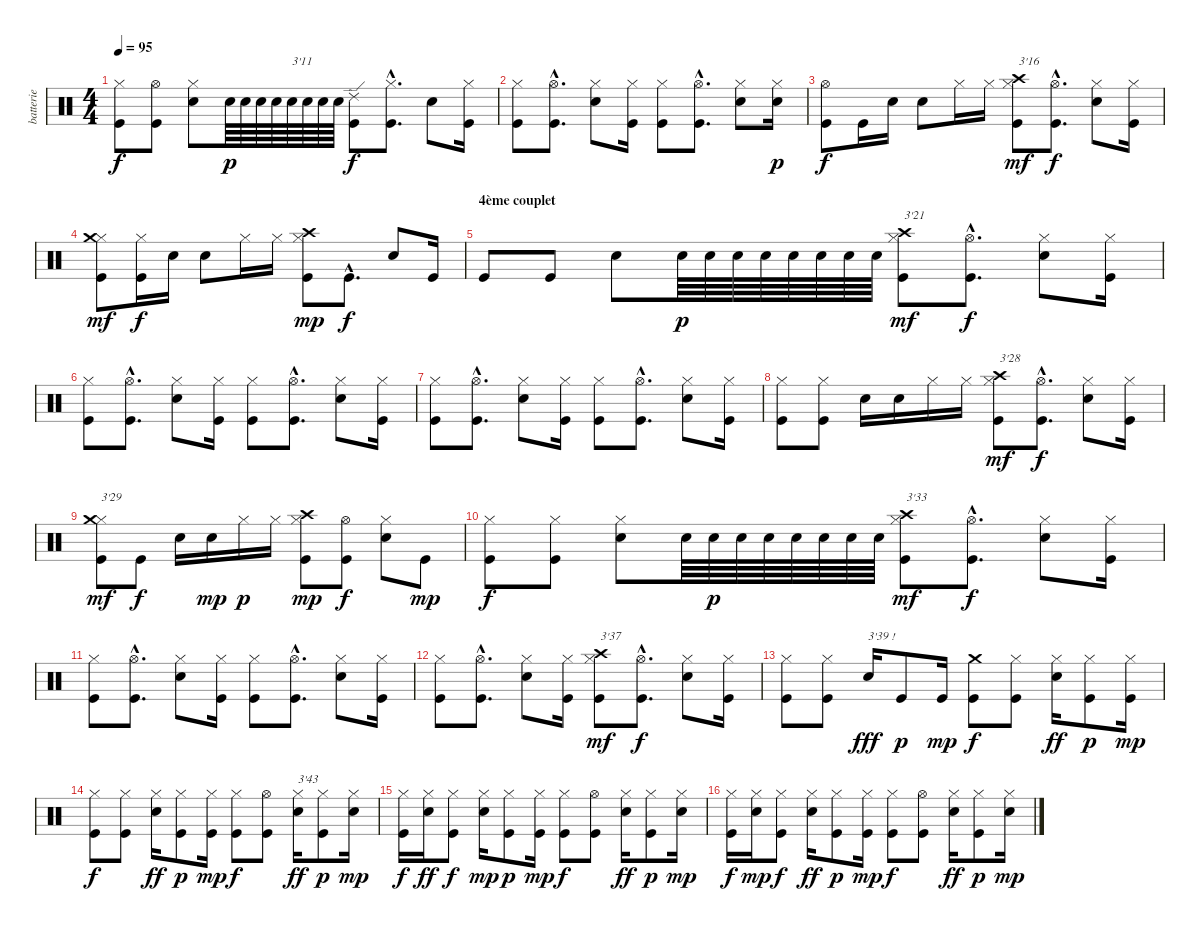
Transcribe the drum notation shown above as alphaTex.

\track ("batterie" "batterie") {instrument percussion}
\staff {score}
\articulation defaults
\ts (4 4)
\tempo 95
\clef neutral
\ks c
("Hi-Hat (closed)" "Kick (hit)").8{dy f} ("Hi-Hat (open)" "Kick (hit)").8 ("Hi-Hat (closed)" "Electric Snare (hit)").8 "Electric Snare (hit)".64{dy p} "Electric Snare (hit)".64 "Electric Snare (hit)".64 "Electric Snare (hit)".64 "Electric Snare (hit)".64{txt "3'11"} "Electric Snare (hit)".64 "Electric Snare (hit)".64 "Electric Snare (hit)".64 ("Ride (edge) 2" "Kick (hit)").8{dy f} ("Hi-Hat (closed)"{hac} "Kick (hit)"{hac}).8{d} "Electric Snare (hit)".8 ("Hi-Hat (closed)" "Kick (hit)").16 |
("Hi-Hat (closed)" "Kick (hit)").8 ("Hi-Hat (open)"{hac} "Kick (hit)"{hac}).8{d} ("Hi-Hat (closed)" "Electric Snare (hit)").8 ("Hi-Hat (closed)" "Kick (hit)").16 ("Hi-Hat (closed)" "Kick (hit)").8 ("Hi-Hat (open)"{hac} "Kick (hit)"{hac}).8{d} ("Hi-Hat (closed)" "Electric Snare (hit)").8 ("Hi-Hat (closed)" "Electric Snare (hit)").16{dy p} |
("Hi-Hat (open)" "Kick (hit)").8{dy f} "Kick (hit)".16 "Electric Snare (hit)".16 "Electric Snare (hit)".8 "Hi-Hat (closed)".16 "Hi-Hat (closed)".16 ("Hi-Hat (closed)" "Kick (hit)" "Crash high (hit)").8{txt "3'16" dy mf} ("Hi-Hat (open)"{hac} "Kick (hit)"{hac}).8{d dy f} ("Hi-Hat (closed)" "Electric Snare (hit)").8 ("Hi-Hat (closed)" "Kick (hit)").16 |
("Hi-Hat (closed)" "Kick (hit)" "Crash medium (hit)").8{dy mf} ("Hi-Hat (closed)" "Kick (hit)").16{dy f} "Electric Snare (hit)".16 "Electric Snare (hit)".8 "Hi-Hat (closed)".16 "Hi-Hat (closed)".16 ("Hi-Hat (closed)" "Kick (hit)" "Crash high (hit)").8{dy mp} "Kick (hit)"{hac}.8{d dy f} "Electric Snare (hit)".8 "Kick (hit)".16 |
\section ("" "4ème couplet")
"Kick (hit)".8 "Kick (hit)".8 "Electric Snare (hit)".8 "Electric Snare (hit)".64{dy p} "Electric Snare (hit)".64 "Electric Snare (hit)".64 "Electric Snare (hit)".64 "Electric Snare (hit)".64 "Electric Snare (hit)".64 "Electric Snare (hit)".64 "Electric Snare (hit)".64 ("Hi-Hat (closed)" "Kick (hit)" "Crash high (hit)").8{txt "3'21" dy mf} ("Hi-Hat (open)"{hac} "Kick (hit)"{hac}).8{d dy f} ("Hi-Hat (closed)" "Electric Snare (hit)").8 ("Hi-Hat (closed)" "Kick (hit)").16 |
("Hi-Hat (closed)" "Kick (hit)").8 ("Hi-Hat (open)"{hac} "Kick (hit)"{hac}).8{d} ("Hi-Hat (closed)" "Electric Snare (hit)").8 ("Hi-Hat (closed)" "Kick (hit)").16 ("Hi-Hat (closed)" "Kick (hit)").8 ("Hi-Hat (open)"{hac} "Kick (hit)"{hac}).8{d} ("Hi-Hat (closed)" "Electric Snare (hit)").8 ("Hi-Hat (closed)" "Kick (hit)").16 |
("Hi-Hat (closed)" "Kick (hit)").8 ("Hi-Hat (open)"{hac} "Kick (hit)"{hac}).8{d} ("Hi-Hat (closed)" "Electric Snare (hit)").8 ("Hi-Hat (closed)" "Kick (hit)").16 ("Hi-Hat (closed)" "Kick (hit)").8 ("Hi-Hat (open)"{hac} "Kick (hit)"{hac}).8{d} ("Hi-Hat (closed)" "Electric Snare (hit)").8 ("Hi-Hat (closed)" "Kick (hit)").16 |
("Hi-Hat (closed)" "Kick (hit)").8 ("Hi-Hat (closed)" "Kick (hit)").8 "Electric Snare (hit)".16 "Electric Snare (hit)".16 "Hi-Hat (closed)".16 "Hi-Hat (closed)".16 ("Hi-Hat (closed)" "Kick (hit)" "Crash high (hit)").8{txt "3'28" dy mf} ("Hi-Hat (open)"{hac} "Kick (hit)"{hac}).8{d dy f} ("Hi-Hat (closed)" "Electric Snare (hit)").8 ("Hi-Hat (closed)" "Kick (hit)").16 |
("Hi-Hat (closed)" "Kick (hit)" "Crash medium (hit)").8{txt "3'29" dy mf} "Kick (hit)".8{dy f} "Electric Snare (hit)".16 "Electric Snare (hit)".16{dy mp} "Hi-Hat (closed)".16{dy p} "Hi-Hat (closed)".16 ("Hi-Hat (closed)" "Kick (hit)" "Crash high (hit)").8{dy mp} ("Hi-Hat (open)" "Kick (hit)").8{dy f} ("Hi-Hat (closed)" "Electric Snare (hit)").8 "Kick (hit)".8{dy mp} |
("Hi-Hat (closed)" "Kick (hit)").8{dy f} ("Hi-Hat (closed)" "Kick (hit)").8 ("Hi-Hat (closed)" "Electric Snare (hit)").8 "Electric Snare (hit)".64 "Electric Snare (hit)".64{dy p} "Electric Snare (hit)".64 "Electric Snare (hit)".64 "Electric Snare (hit)".64 "Electric Snare (hit)".64 "Electric Snare (hit)".64 "Electric Snare (hit)".64 ("Hi-Hat (closed)" "Kick (hit)" "Crash high (hit)").8{txt "3'33" dy mf} ("Hi-Hat (open)"{hac} "Kick (hit)"{hac}).8{d dy f} ("Hi-Hat (closed)" "Electric Snare (hit)").8 ("Hi-Hat (closed)" "Kick (hit)").16 |
("Hi-Hat (closed)" "Kick (hit)").8 ("Hi-Hat (open)"{hac} "Kick (hit)"{hac}).8{d} ("Hi-Hat (closed)" "Electric Snare (hit)").8 ("Hi-Hat (closed)" "Kick (hit)").16 ("Hi-Hat (closed)" "Kick (hit)").8 ("Hi-Hat (open)"{hac} "Kick (hit)"{hac}).8{d} ("Hi-Hat (closed)" "Electric Snare (hit)").8 ("Hi-Hat (closed)" "Kick (hit)").16 |
("Hi-Hat (closed)" "Kick (hit)").8 ("Hi-Hat (open)"{hac} "Kick (hit)"{hac}).8{d} ("Hi-Hat (closed)" "Electric Snare (hit)").8 ("Hi-Hat (closed)" "Kick (hit)").16 ("Hi-Hat (closed)" "Kick (hit)" "Crash high (hit)").8{txt "3'37" dy mf} ("Hi-Hat (open)"{hac} "Kick (hit)"{hac}).8{d dy f} ("Hi-Hat (closed)" "Electric Snare (hit)").8 ("Hi-Hat (closed)" "Kick (hit)").16 |
("Hi-Hat (closed)" "Kick (hit)").8 ("Hi-Hat (closed)" "Kick (hit)").8 "Electric Snare (hit)".16{txt "3'39 !" dy fff} "Kick (hit)".8{dy p} "Kick (hit)".16{dy mp} ("Kick (hit)" "Crash medium (hit)").8{dy f} ("Hi-Hat (closed)" "Kick (hit)").8 ("Hi-Hat (closed)" "Electric Snare (hit)").16{dy ff} ("Hi-Hat (closed)" "Kick (hit)").8{dy p} ("Hi-Hat (closed)" "Kick (hit)").16{dy mp} |
("Hi-Hat (closed)" "Kick (hit)").8{dy f} ("Hi-Hat (closed)" "Kick (hit)").8 ("Hi-Hat (closed)" "Electric Snare (hit)").16{dy ff} ("Hi-Hat (closed)" "Kick (hit)").8{dy p} ("Hi-Hat (closed)" "Kick (hit)").16{dy mp} ("Hi-Hat (closed)" "Kick (hit)").8{dy f} ("Hi-Hat (open)" "Kick (hit)").8 ("Hi-Hat (closed)" "Electric Snare (hit)").16{txt "3'43" dy ff} ("Hi-Hat (closed)" "Kick (hit)").8{dy p} ("Hi-Hat (closed)" "Electric Snare (hit)").16{dy mp} |
("Hi-Hat (closed)" "Kick (hit)").16{dy f} ("Hi-Hat (closed)" "Electric Snare (hit)").16{dy ff} ("Hi-Hat (closed)" "Kick (hit)").8{dy f} ("Hi-Hat (closed)" "Electric Snare (hit)").16{dy mp} ("Hi-Hat (closed)" "Kick (hit)").8{dy p} ("Hi-Hat (closed)" "Kick (hit)").16{dy mp} ("Hi-Hat (closed)" "Kick (hit)").8{dy f} ("Hi-Hat (open)" "Kick (hit)").8 ("Hi-Hat (closed)" "Electric Snare (hit)").16{dy ff} ("Hi-Hat (closed)" "Kick (hit)").8{dy p} ("Hi-Hat (closed)" "Electric Snare (hit)").16{dy mp} |
("Hi-Hat (closed)" "Kick (hit)").16{dy f} ("Hi-Hat (closed)" "Electric Snare (hit)").16{dy mp} ("Hi-Hat (closed)" "Kick (hit)").8{dy f} ("Hi-Hat (closed)" "Electric Snare (hit)").16{dy ff} ("Hi-Hat (closed)" "Kick (hit)").8{dy p} ("Hi-Hat (closed)" "Kick (hit)").16{dy mp} ("Hi-Hat (closed)" "Kick (hit)").8{dy f} ("Hi-Hat (open)" "Kick (hit)").8 ("Hi-Hat (closed)" "Electric Snare (hit)").16{dy ff} ("Hi-Hat (closed)" "Kick (hit)").8{dy p} ("Hi-Hat (closed)" "Electric Snare (hit)").16{dy mp}
